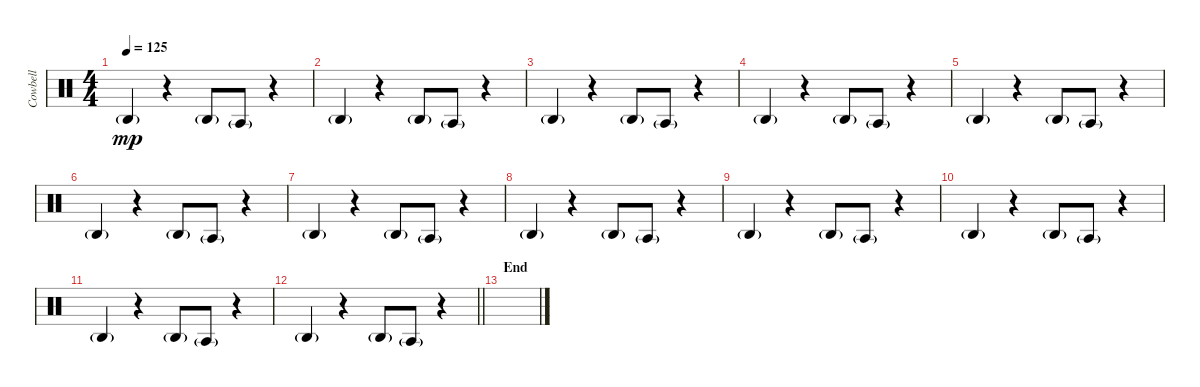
\track ("Cowbell" "Cowbell") {instrument percussion}
\staff {score}
\articulation defaults
\ts (4 4)
\tempo 125
\clef neutral
\ks c "Agogo high (hit)"{g}.4{dy mp}
r.4 "Agogo high (hit)"{g}.8 "Agogo tow (hit)"{g}.8 r.4 |
"Agogo high (hit)"{g}.4 r.4 "Agogo high (hit)"{g}.8 "Agogo tow (hit)"{g}.8 r.4 |
"Agogo high (hit)"{g}.4 r.4 "Agogo high (hit)"{g}.8 "Agogo tow (hit)"{g}.8 r.4 |
"Agogo high (hit)"{g}.4 r.4 "Agogo high (hit)"{g}.8 "Agogo tow (hit)"{g}.8 r.4 |
"Agogo high (hit)"{g}.4 r.4 "Agogo high (hit)"{g}.8 "Agogo tow (hit)"{g}.8 r.4 |
"Agogo high (hit)"{g}.4 r.4 "Agogo high (hit)"{g}.8 "Agogo tow (hit)"{g}.8 r.4 |
"Agogo high (hit)"{g}.4 r.4 "Agogo high (hit)"{g}.8 "Agogo tow (hit)"{g}.8 r.4 |
"Agogo high (hit)"{g}.4 r.4 "Agogo high (hit)"{g}.8 "Agogo tow (hit)"{g}.8 r.4 |
"Agogo high (hit)"{g}.4 r.4 "Agogo high (hit)"{g}.8 "Agogo tow (hit)"{g}.8 r.4 |
"Agogo high (hit)"{g}.4 r.4 "Agogo high (hit)"{g}.8 "Agogo tow (hit)"{g}.8 r.4 |
"Agogo high (hit)"{g}.4 r.4 "Agogo high (hit)"{g}.8 "Agogo tow (hit)"{g}.8 r.4 |
\barLineRight lightlight "Agogo high (hit)"{g}.4
r.4 "Agogo high (hit)"{g}.8 "Agogo tow (hit)"{g}.8 r.4 |
\section ("" "End")
